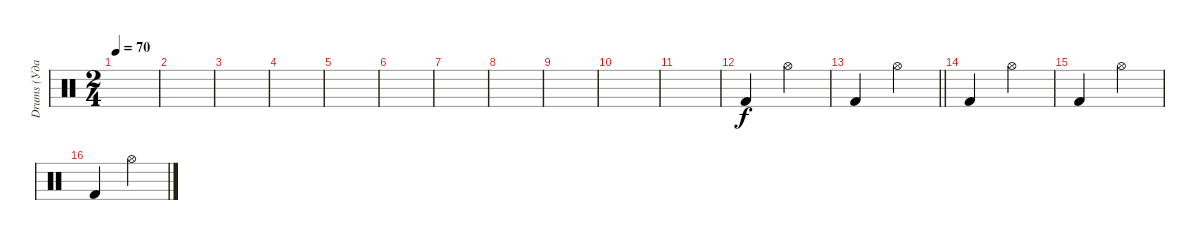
\track ("Drums (Ударные)" "Drums (Уда") {instrument percussion}
\staff {score}
\articulation defaults
\ts (2 4)
\tempo 70
\clef neutral
\ks c
|
|
|
|
|
|
|
|
|
|
|
"Kick (hit) 2".4 "Hi-Hat (open)".4 |
\barLineRight lightlight "Kick (hit) 2".4 "Hi-Hat (open)".4
|
"Kick (hit) 2".4 "Hi-Hat (open)".4 |
"Kick (hit) 2".4 "Hi-Hat (open)".4 |
"Kick (hit) 2".4 "Hi-Hat (open)".4
